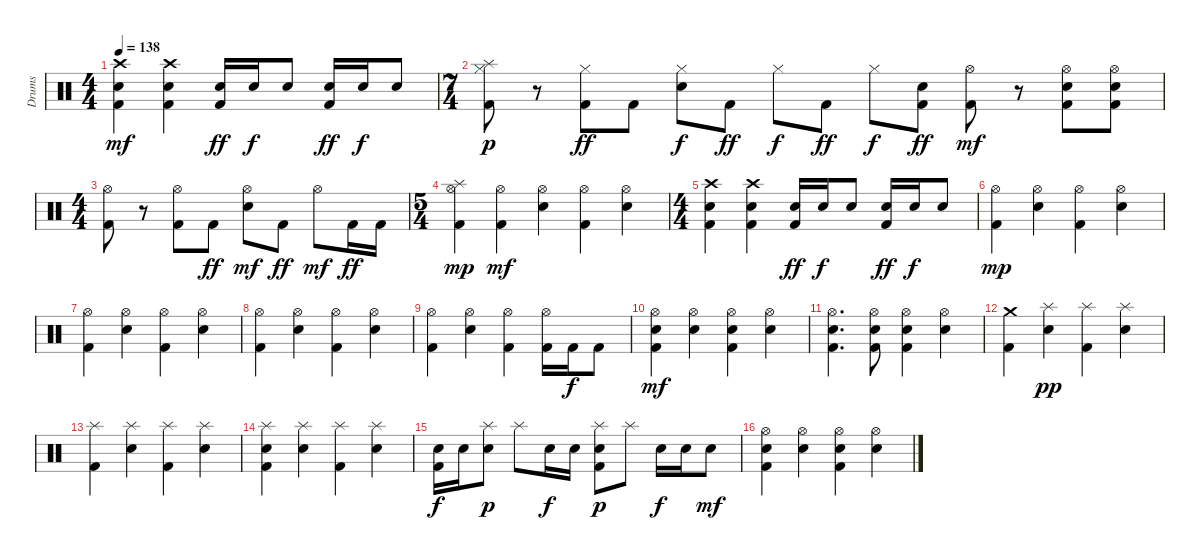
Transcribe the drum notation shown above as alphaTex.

\track ("Drums" "Drums") {instrument percussion}
\staff {score}
\articulation defaults
\ts (4 4)
\tempo 138
\clef neutral
\ks c
("Kick (hit) 2" "Electric Snare (hit)" "Crash high (hit)").4{dy mf} ("Kick (hit) 2" "Electric Snare (hit)" "Crash high (hit)").4 ("Kick (hit) 2" "Snare (hit) 2").16{dy ff} "Snare (hit) 2".16{dy f} "Snare (hit) 2".8 ("Kick (hit) 2" "Electric Snare (hit)").16{dy ff} "Electric Snare (hit)".16{dy f} "Electric Snare (hit)".8 |
\ts (7 4)
("Kick (hit) 2" "Hi-Hat (closed)" "Splash (hit)").8{dy p} r.8 ("Kick (hit) 2" "Hi-Hat (closed)").8{dy ff} "Kick (hit) 2".8 ("Electric Snare (hit)" "Hi-Hat (closed)").8{dy f} "Kick (hit) 2".8{dy ff} "Hi-Hat (closed)".8{dy f} "Kick (hit) 2".8{dy ff} "Hi-Hat (closed)".8{dy f} ("Kick (hit) 2" "Electric Snare (hit)").8{dy ff} ("Kick (hit) 2" "Hi-Hat (open)").8{dy mf} r.8 ("Kick (hit) 2" "Electric Snare (hit)" "Hi-Hat (open)").8 ("Kick (hit) 2" "Electric Snare (hit)" "Hi-Hat (open)").8 |
\ts (4 4)
("Kick (hit) 2" "Hi-Hat (open)").8 r.8 ("Kick (hit) 2" "Hi-Hat (open)").8 "Kick (hit) 2".8{dy ff} ("Electric Snare (hit)" "Hi-Hat (open)").8{dy mf} "Kick (hit) 2".8{dy ff} "Hi-Hat (open)".8{dy mf} "Kick (hit) 2".16{dy ff} "Kick (hit) 2".16 |
\ts (5 4)
("Kick (hit) 2" "Hi-Hat (open)" "Splash (hit)").4{dy mp} ("Kick (hit) 2" "Hi-Hat (open)").4{dy mf} ("Electric Snare (hit)" "Hi-Hat (open)").4 ("Kick (hit) 2" "Hi-Hat (open)").4 ("Electric Snare (hit)" "Hi-Hat (open)").4 |
\ts (4 4)
("Kick (hit) 2" "Electric Snare (hit)" "Crash high (hit)").4 ("Kick (hit) 2" "Electric Snare (hit)" "Crash high (hit)").4 ("Kick (hit) 2" "Snare (hit) 2").16{dy ff} "Snare (hit) 2".16{dy f} "Snare (hit) 2".8 ("Kick (hit) 2" "Electric Snare (hit)").16{dy ff} "Electric Snare (hit)".16{dy f} "Electric Snare (hit)".8 |
("Kick (hit) 2" "Hi-Hat (open)").4{dy mp} ("Electric Snare (hit)" "Hi-Hat (open)").4 ("Kick (hit) 2" "Hi-Hat (open)").4 ("Electric Snare (hit)" "Hi-Hat (open)").4 |
("Kick (hit) 2" "Hi-Hat (open)").4 ("Electric Snare (hit)" "Hi-Hat (open)").4 ("Kick (hit) 2" "Hi-Hat (open)").4 ("Electric Snare (hit)" "Hi-Hat (open)").4 |
("Kick (hit) 2" "Hi-Hat (open)").4 ("Electric Snare (hit)" "Hi-Hat (open)").4 ("Kick (hit) 2" "Hi-Hat (open)").4 ("Electric Snare (hit)" "Hi-Hat (open)").4 |
("Kick (hit) 2" "Hi-Hat (open)").4 ("Electric Snare (hit)" "Hi-Hat (open)").4 ("Kick (hit) 2" "Hi-Hat (open)").4 ("Kick (hit) 2" "Hi-Hat (open)").16 "Kick (hit) 2".16{dy f} "Kick (hit) 2".8 |
("Kick (hit) 2" "Electric Snare (hit)" "Hi-Hat (open)").4{dy mf} ("Electric Snare (hit)" "Hi-Hat (open)").4 ("Kick (hit) 2" "Electric Snare (hit)" "Hi-Hat (open)").4 ("Electric Snare (hit)" "Hi-Hat (open)").4 |
("Kick (hit) 2" "Electric Snare (hit)" "Hi-Hat (open)").4{d} ("Kick (hit) 2" "Electric Snare (hit)" "Hi-Hat (open)").8 ("Kick (hit) 2" "Electric Snare (hit)" "Hi-Hat (open)").4 ("Electric Snare (hit)" "Hi-Hat (open)").4 |
("Kick (hit) 2" "Crash medium (hit)").4 ("Electric Snare (hit)" "Splash (hit)").4{dy pp} ("Kick (hit) 2" "Splash (hit)").4 ("Electric Snare (hit)" "Splash (hit)").4 |
("Kick (hit) 2" "Splash (hit)").4 ("Electric Snare (hit)" "Splash (hit)").4 ("Kick (hit) 2" "Splash (hit)").4 ("Electric Snare (hit)" "Splash (hit)").4 |
("Kick (hit) 2" "Electric Snare (hit)" "Splash (hit)").4 ("Electric Snare (hit)" "Splash (hit)").4 ("Kick (hit) 2" "Splash (hit)").4 ("Electric Snare (hit)" "Splash (hit)").4 |
("Kick (hit) 2" "Electric Snare (hit)").16{dy f} "Electric Snare (hit)".16 ("Electric Snare (hit)" "Splash (hit)").8{dy p} "Splash (hit)".8 "Electric Snare (hit)".16{dy f} "Electric Snare (hit)".16 ("Kick (hit) 2" "Electric Snare (hit)" "Splash (hit)").8{dy p} "Splash (hit)".8 "Electric Snare (hit)".16{dy f} "Electric Snare (hit)".16 "Electric Snare (hit)".8{dy mf} |
("Kick (hit) 2" "Electric Snare (hit)" "Hi-Hat (open)").4 ("Electric Snare (hit)" "Hi-Hat (open)").4 ("Kick (hit) 2" "Electric Snare (hit)" "Hi-Hat (open)").4 ("Electric Snare (hit)" "Hi-Hat (open)").4
